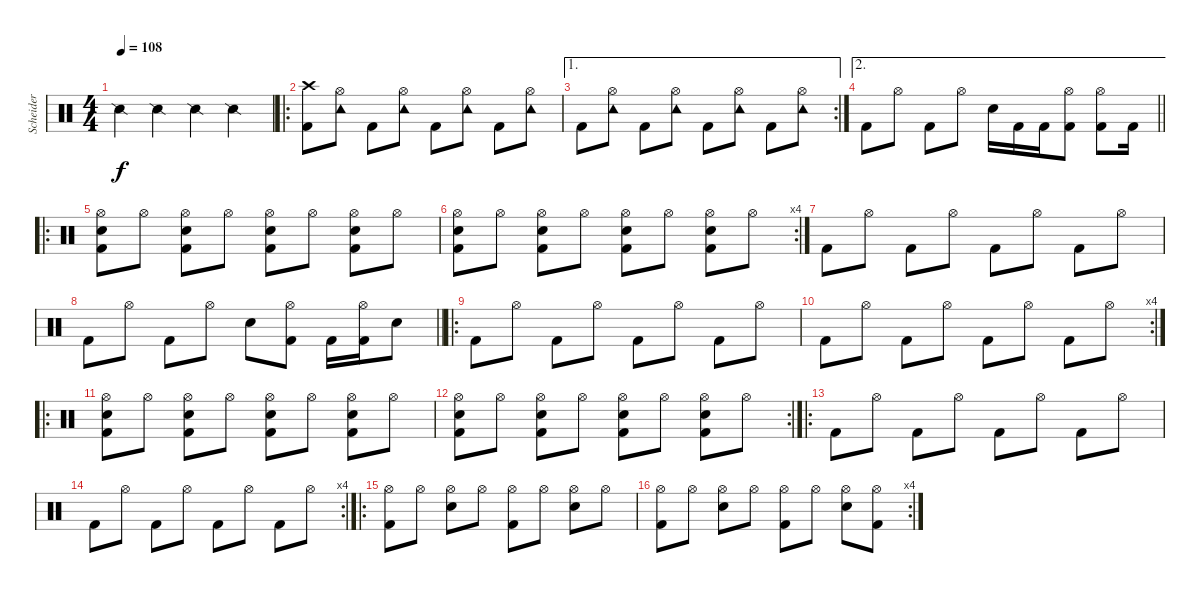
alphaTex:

\track ("Scheider" "Scheider") {instrument percussion}
\staff {score}
\articulation defaults
\ts (4 4)
\tempo 108
\clef neutral
\ks c "Snare (side stick) 2".4{dy f} "Snare (side stick) 2".4 "Snare (side stick) 2".4 "Snare (side stick) 2".4
|
\ro
("Crash high (hit)" "Kick (hit) 2").8 ("Tambourine (hit)" "Hi-Hat (open)").8 "Kick (hit) 2".8 ("Tambourine (hit)" "Hi-Hat (open)").8 "Kick (hit) 2".8 ("Tambourine (hit)" "Hi-Hat (open)").8 "Kick (hit) 2".8 ("Tambourine (hit)" "Hi-Hat (open)").8 |
\ae 1
\rc 2 "Kick (hit) 2".8
("Tambourine (hit)" "Hi-Hat (open)").8 "Kick (hit) 2".8 ("Tambourine (hit)" "Hi-Hat (open)").8 "Kick (hit) 2".8 ("Tambourine (hit)" "Hi-Hat (open)").8 "Kick (hit) 2".8 ("Tambourine (hit)" "Hi-Hat (open)").8 |
\ae 2
\barLineRight lightlight "Kick (hit) 2".8 "Hi-Hat (open)".8 "Kick (hit) 2".8 "Hi-Hat (open)".8 "Electric Snare (hit)".16 "Kick (hit) 2".16 "Kick (hit) 2".16
("Hi-Hat (open)" "Kick (hit) 2").8 ("Hi-Hat (open)" "Kick (hit) 2").8 "Kick (hit) 2".16 |
\ro
("Hi-Hat (open)" "Electric Snare (hit)" "Kick (hit) 2").8 "Hi-Hat (open)".8 ("Hi-Hat (open)" "Electric Snare (hit)" "Kick (hit) 2").8 "Hi-Hat (open)".8 ("Hi-Hat (open)" "Electric Snare (hit)" "Kick (hit) 2").8 "Hi-Hat (open)".8 ("Hi-Hat (open)" "Electric Snare (hit)" "Kick (hit) 2").8 "Hi-Hat (open)".8 |
\rc 4
("Hi-Hat (open)" "Electric Snare (hit)" "Kick (hit) 2").8 "Hi-Hat (open)".8 ("Hi-Hat (open)" "Electric Snare (hit)" "Kick (hit) 2").8 "Hi-Hat (open)".8 ("Hi-Hat (open)" "Electric Snare (hit)" "Kick (hit) 2").8 "Hi-Hat (open)".8 ("Hi-Hat (open)" "Electric Snare (hit)" "Kick (hit) 2").8 "Hi-Hat (open)".8 |
"Kick (hit) 2".8 "Hi-Hat (open)".8 "Kick (hit) 2".8 "Hi-Hat (open)".8 "Kick (hit) 2".8 "Hi-Hat (open)".8 "Kick (hit) 2".8 "Hi-Hat (open)".8 |
\barLineRight lightlight "Kick (hit) 2".8 "Hi-Hat (open)".8 "Kick (hit) 2".8 "Hi-Hat (open)".8 "Electric Snare (hit)".8
("Hi-Hat (open)" "Kick (hit) 2").8 "Kick (hit) 2".16 ("Hi-Hat (open)" "Kick (hit) 2").16 "Electric Snare (hit)".8 |
\ro "Kick (hit) 2".8 "Hi-Hat (open)".8 "Kick (hit) 2".8 "Hi-Hat (open)".8 "Kick (hit) 2".8 "Hi-Hat (open)".8 "Kick (hit) 2".8 "Hi-Hat (open)".8
|
\rc 4 "Kick (hit) 2".8 "Hi-Hat (open)".8 "Kick (hit) 2".8 "Hi-Hat (open)".8 "Kick (hit) 2".8 "Hi-Hat (open)".8 "Kick (hit) 2".8 "Hi-Hat (open)".8
|
\ro
("Hi-Hat (open)" "Electric Snare (hit)" "Kick (hit) 2").8 "Hi-Hat (open)".8 ("Hi-Hat (open)" "Electric Snare (hit)" "Kick (hit) 2").8 "Hi-Hat (open)".8 ("Hi-Hat (open)" "Electric Snare (hit)" "Kick (hit) 2").8 "Hi-Hat (open)".8 ("Hi-Hat (open)" "Electric Snare (hit)" "Kick (hit) 2").8 "Hi-Hat (open)".8 |
\rc 2
("Hi-Hat (open)" "Electric Snare (hit)" "Kick (hit) 2").8 "Hi-Hat (open)".8 ("Hi-Hat (open)" "Electric Snare (hit)" "Kick (hit) 2").8 "Hi-Hat (open)".8 ("Hi-Hat (open)" "Electric Snare (hit)" "Kick (hit) 2").8 "Hi-Hat (open)".8 ("Hi-Hat (open)" "Electric Snare (hit)" "Kick (hit) 2").8 "Hi-Hat (open)".8 |
\ro "Kick (hit) 2".8 "Hi-Hat (open)".8 "Kick (hit) 2".8 "Hi-Hat (open)".8 "Kick (hit) 2".8 "Hi-Hat (open)".8 "Kick (hit) 2".8 "Hi-Hat (open)".8
|
\rc 4 "Kick (hit) 2".8 "Hi-Hat (open)".8 "Kick (hit) 2".8 "Hi-Hat (open)".8 "Kick (hit) 2".8 "Hi-Hat (open)".8 "Kick (hit) 2".8 "Hi-Hat (open)".8
|
\ro
("Hi-Hat (open)" "Kick (hit) 2").8 "Hi-Hat (open)".8 ("Hi-Hat (open)" "Electric Snare (hit)").8 "Hi-Hat (open)".8 ("Hi-Hat (open)" "Kick (hit) 2").8 "Hi-Hat (open)".8 ("Hi-Hat (open)" "Electric Snare (hit)").8 "Hi-Hat (open)".8 |
\rc 4
("Hi-Hat (open)" "Kick (hit) 2").8 "Hi-Hat (open)".8 ("Hi-Hat (open)" "Electric Snare (hit)").8 "Hi-Hat (open)".8 ("Hi-Hat (open)" "Kick (hit) 2").8 "Hi-Hat (open)".8 ("Hi-Hat (open)" "Electric Snare (hit)").8 ("Hi-Hat (open)" "Kick (hit) 2").8
